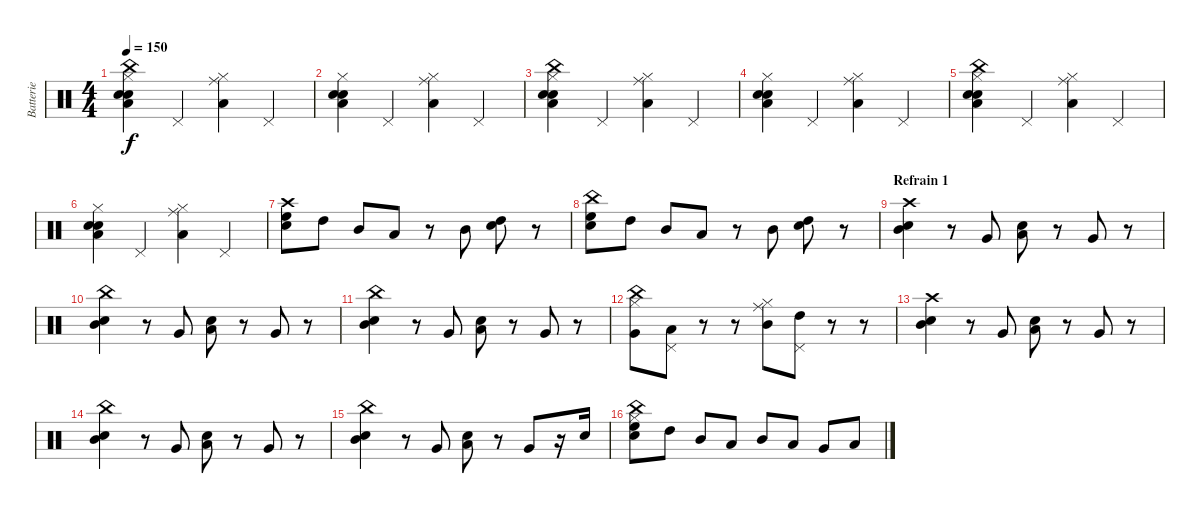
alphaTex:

\track ("Batterie" "Batterie") {instrument percussion}
\staff {score}
\articulation defaults
\ts (4 4)
\tempo 150
\clef neutral
\ks c
("Electric Snare (hit)" "Low Tom (hit)" "Hi-Hat (closed)" "Snare (hit) 2" "China (hit)").4{dy f} "Pedal Hi-Hat (hit)".4 ("Low Tom (hit)" "Hi-Hat (closed)" "Ride (middle)").4 "Pedal Hi-Hat (hit)".4 |
("Electric Snare (hit)" "Low Tom (hit)" "Hi-Hat (closed)" "Snare (hit) 2").4 "Pedal Hi-Hat (hit)".4 ("Low Tom (hit)" "Hi-Hat (closed)" "Ride (middle)").4 "Pedal Hi-Hat (hit)".4 |
("Electric Snare (hit)" "Low Tom (hit)" "Hi-Hat (closed)" "Snare (hit) 2" "China (hit)").4 "Pedal Hi-Hat (hit)".4 ("Low Tom (hit)" "Hi-Hat (closed)" "Ride (middle)").4 "Pedal Hi-Hat (hit)".4 |
("Electric Snare (hit)" "Low Tom (hit)" "Hi-Hat (closed)" "Snare (hit) 2").4 "Pedal Hi-Hat (hit)".4 ("Low Tom (hit)" "Hi-Hat (closed)" "Ride (middle)").4 "Pedal Hi-Hat (hit)".4 |
("Electric Snare (hit)" "Low Tom (hit)" "Hi-Hat (closed)" "Snare (hit) 2" "China (hit)").4 "Pedal Hi-Hat (hit)".4 ("Low Tom (hit)" "Hi-Hat (closed)" "Ride (middle)").4 "Pedal Hi-Hat (hit)".4 |
("Electric Snare (hit)" "Low Tom (hit)" "Hi-Hat (closed)" "Snare (hit) 2").4 "Pedal Hi-Hat (hit)".4 ("Low Tom (hit)" "Hi-Hat (closed)" "Ride (middle)").4 "Pedal Hi-Hat (hit)".4 |
("High Floor Tom (hit)" "Electric Snare (hit)" "Crash high (hit)").8 "High Tom (hit)".8 "Mid Tom (hit)".8 "Low Tom (hit)".8 r.8 "Mid Tom (hit)".8 ("High Tom (hit)" "Snare (hit) 2").8 r.8 |
("High Floor Tom (hit)" "Electric Snare (hit)" "China (hit)").8 "High Tom (hit)".8 "Mid Tom (hit)".8 "Low Tom (hit)".8 r.8 "Mid Tom (hit)".8 ("High Tom (hit)" "Snare (hit) 2").8 r.8 |
\section ("" "Refrain 1")
("Mid Tom (hit)" "Electric Snare (hit)" "Crash high (hit)").4 r.8 "Very Low Tom (hit)".8 ("Low Tom (hit)" "Electric Snare (hit)").8 r.8 "Very Low Tom (hit)".8 r.8 |
("Mid Tom (hit)" "Electric Snare (hit)" "China (hit)").4 r.8 "Very Low Tom (hit)".8 ("Low Tom (hit)" "Electric Snare (hit)").8 r.8 "Very Low Tom (hit)".8 r.8 |
("Mid Tom (hit)" "Electric Snare (hit)" "China (hit)").4 r.8 "Very Low Tom (hit)".8 ("Low Tom (hit)" "Electric Snare (hit)").8 r.8 "Very Low Tom (hit)".8 r.8 |
("Hi-Hat (closed)" "Very Low Tom (hit)" "China (hit)").8 ("Pedal Hi-Hat (hit)" "Low Tom (hit)").8 r.8 r.8 ("Hi-Hat (closed)" "Mid Tom (hit)" "Ride (middle)").8 ("Pedal Hi-Hat (hit)" "High Tom (hit)").8 r.8 r.8 |
("Mid Tom (hit)" "Electric Snare (hit)" "Crash high (hit)").4 r.8 "Very Low Tom (hit)".8 ("Low Tom (hit)" "Electric Snare (hit)").8 r.8 "Very Low Tom (hit)".8 r.8 |
("Mid Tom (hit)" "Electric Snare (hit)" "China (hit)").4 r.8 "Very Low Tom (hit)".8 ("Low Tom (hit)" "Electric Snare (hit)").8 r.8 "Very Low Tom (hit)".8 r.8 |
("Mid Tom (hit)" "Electric Snare (hit)" "China (hit)").4 r.8 "Very Low Tom (hit)".8 ("Low Tom (hit)" "Electric Snare (hit)").8 r.8 "Very Low Tom (hit)".8 r.16 "Electric Snare (hit)".16 |
("Hi-Hat (closed)" "High Floor Tom (hit)" "China (hit)" "Snare (hit) 2").8 "High Tom (hit)".8 "Mid Tom (hit)".8 "Low Floor Tom (hit)".8 "Mid Tom (hit)".8 "Low Tom (hit)".8 "Very Low Tom (hit)".8 "Low Floor Tom (hit)".8
